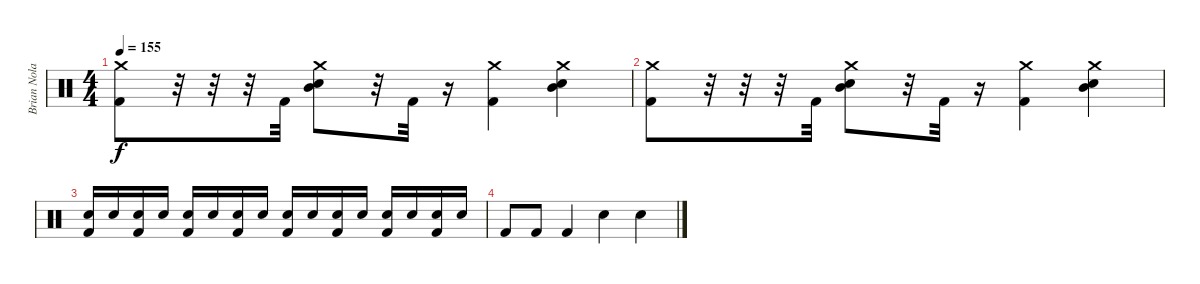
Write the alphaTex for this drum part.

\track ("Brian Nolan" "Brian Nola") {instrument percussion}
\staff {score}
\articulation defaults
\ts (4 4)
\tempo 155
\clef neutral
\ks c
("Crash medium (hit)" "Kick (hit) 2").8{dy f} r.32 r.32 r.32 "Kick (hit) 2".32 ("Snare (hit) 2" "Mid Tom (hit)" "Crash medium (hit)").8 r.32 "Kick (hit) 2".32 r.16 ("Crash medium (hit)" "Kick (hit) 2").4 ("Snare (hit) 2" "Mid Tom (hit)" "Crash medium (hit)").4 |
("Crash medium (hit)" "Kick (hit) 2").8 r.32 r.32 r.32 "Kick (hit) 2".32 ("Snare (hit) 2" "Mid Tom (hit)" "Crash medium (hit)").8 r.32 "Kick (hit) 2".32 r.16 ("Crash medium (hit)" "Kick (hit) 2").4 ("Snare (hit) 2" "Mid Tom (hit)" "Crash medium (hit)").4 |
("Snare (hit) 2" "Kick (hit) 2").16 "Snare (hit) 2".16 ("Snare (hit) 2" "Kick (hit) 2").16 "Snare (hit) 2".16 ("Snare (hit) 2" "Kick (hit) 2").16 "Snare (hit) 2".16 ("Snare (hit) 2" "Kick (hit) 2").16 "Snare (hit) 2".16 ("Snare (hit) 2" "Kick (hit) 2").16 "Snare (hit) 2".16 ("Snare (hit) 2" "Kick (hit) 2").16 "Snare (hit) 2".16 ("Snare (hit) 2" "Kick (hit) 2").16 "Snare (hit) 2".16 ("Snare (hit) 2" "Kick (hit) 2").16 "Snare (hit) 2".16 |
"Kick (hit) 2".8 "Kick (hit) 2".8 "Kick (hit) 2".4 "Snare (hit) 2".4 "Snare (hit) 2".4
